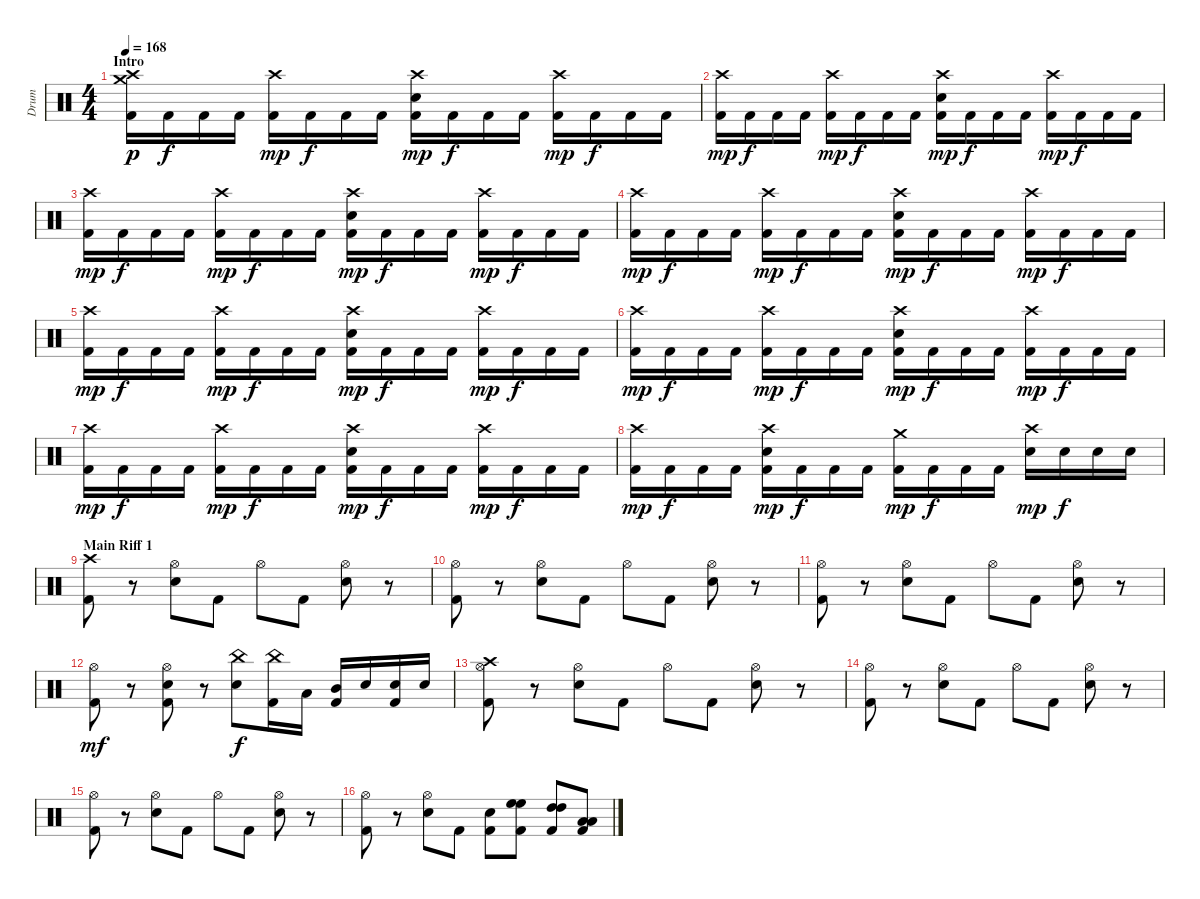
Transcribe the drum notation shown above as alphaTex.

\track ("Drum" "Drum") {instrument percussion}
\staff {score}
\articulation defaults
\ts (4 4)
\section ("" "Intro")
\tempo 168
\clef neutral
\ks c
("Crash medium (hit)" "Crash high (hit)" "Kick (hit) 2").16{dy p} "Kick (hit) 2".16{dy f} "Kick (hit) 2".16 "Kick (hit) 2".16 ("Crash high (hit)" "Kick (hit) 2").16{dy mp} "Kick (hit) 2".16{dy f} "Kick (hit) 2".16 "Kick (hit) 2".16 ("Crash high (hit)" "Electric Snare (hit)" "Kick (hit) 2").16{dy mp} "Kick (hit) 2".16{dy f} "Kick (hit) 2".16 "Kick (hit) 2".16 ("Crash high (hit)" "Kick (hit) 2").16{dy mp} "Kick (hit) 2".16{dy f} "Kick (hit) 2".16 "Kick (hit) 2".16 |
("Crash high (hit)" "Kick (hit) 2").16{dy mp} "Kick (hit) 2".16{dy f} "Kick (hit) 2".16 "Kick (hit) 2".16 ("Crash high (hit)" "Kick (hit) 2").16{dy mp} "Kick (hit) 2".16{dy f} "Kick (hit) 2".16 "Kick (hit) 2".16 ("Crash high (hit)" "Electric Snare (hit)" "Kick (hit) 2").16{dy mp} "Kick (hit) 2".16{dy f} "Kick (hit) 2".16 "Kick (hit) 2".16 ("Crash high (hit)" "Kick (hit) 2").16{dy mp} "Kick (hit) 2".16{dy f} "Kick (hit) 2".16 "Kick (hit) 2".16 |
("Crash high (hit)" "Kick (hit) 2").16{dy mp} "Kick (hit) 2".16{dy f} "Kick (hit) 2".16 "Kick (hit) 2".16 ("Crash high (hit)" "Kick (hit) 2").16{dy mp} "Kick (hit) 2".16{dy f} "Kick (hit) 2".16 "Kick (hit) 2".16 ("Crash high (hit)" "Electric Snare (hit)" "Kick (hit) 2").16{dy mp} "Kick (hit) 2".16{dy f} "Kick (hit) 2".16 "Kick (hit) 2".16 ("Crash high (hit)" "Kick (hit) 2").16{dy mp} "Kick (hit) 2".16{dy f} "Kick (hit) 2".16 "Kick (hit) 2".16 |
("Crash high (hit)" "Kick (hit) 2").16{dy mp} "Kick (hit) 2".16{dy f} "Kick (hit) 2".16 "Kick (hit) 2".16 ("Crash high (hit)" "Kick (hit) 2").16{dy mp} "Kick (hit) 2".16{dy f} "Kick (hit) 2".16 "Kick (hit) 2".16 ("Crash high (hit)" "Electric Snare (hit)" "Kick (hit) 2").16{dy mp} "Kick (hit) 2".16{dy f} "Kick (hit) 2".16 "Kick (hit) 2".16 ("Crash high (hit)" "Kick (hit) 2").16{dy mp} "Kick (hit) 2".16{dy f} "Kick (hit) 2".16 "Kick (hit) 2".16 |
("Crash high (hit)" "Kick (hit) 2").16{dy mp} "Kick (hit) 2".16{dy f} "Kick (hit) 2".16 "Kick (hit) 2".16 ("Crash high (hit)" "Kick (hit) 2").16{dy mp} "Kick (hit) 2".16{dy f} "Kick (hit) 2".16 "Kick (hit) 2".16 ("Crash high (hit)" "Electric Snare (hit)" "Kick (hit) 2").16{dy mp} "Kick (hit) 2".16{dy f} "Kick (hit) 2".16 "Kick (hit) 2".16 ("Crash high (hit)" "Kick (hit) 2").16{dy mp} "Kick (hit) 2".16{dy f} "Kick (hit) 2".16 "Kick (hit) 2".16 |
("Crash high (hit)" "Kick (hit) 2").16{dy mp} "Kick (hit) 2".16{dy f} "Kick (hit) 2".16 "Kick (hit) 2".16 ("Crash high (hit)" "Kick (hit) 2").16{dy mp} "Kick (hit) 2".16{dy f} "Kick (hit) 2".16 "Kick (hit) 2".16 ("Crash high (hit)" "Electric Snare (hit)" "Kick (hit) 2").16{dy mp} "Kick (hit) 2".16{dy f} "Kick (hit) 2".16 "Kick (hit) 2".16 ("Crash high (hit)" "Kick (hit) 2").16{dy mp} "Kick (hit) 2".16{dy f} "Kick (hit) 2".16 "Kick (hit) 2".16 |
("Crash high (hit)" "Kick (hit) 2").16{dy mp} "Kick (hit) 2".16{dy f} "Kick (hit) 2".16 "Kick (hit) 2".16 ("Crash high (hit)" "Kick (hit) 2").16{dy mp} "Kick (hit) 2".16{dy f} "Kick (hit) 2".16 "Kick (hit) 2".16 ("Crash high (hit)" "Electric Snare (hit)" "Kick (hit) 2").16{dy mp} "Kick (hit) 2".16{dy f} "Kick (hit) 2".16 "Kick (hit) 2".16 ("Crash high (hit)" "Kick (hit) 2").16{dy mp} "Kick (hit) 2".16{dy f} "Kick (hit) 2".16 "Kick (hit) 2".16 |
("Crash high (hit)" "Kick (hit) 2").16{dy mp} "Kick (hit) 2".16{dy f} "Kick (hit) 2".16 "Kick (hit) 2".16 ("Crash high (hit)" "Electric Snare (hit)" "Kick (hit) 2").16{dy mp} "Kick (hit) 2".16{dy f} "Kick (hit) 2".16 "Kick (hit) 2".16 ("Crash medium (hit)" "Kick (hit) 2").16{dy mp} "Kick (hit) 2".16{dy f} "Kick (hit) 2".16 "Kick (hit) 2".16 ("Crash high (hit)" "Electric Snare (hit)").16{dy mp} "Electric Snare (hit)".16{dy f} "Electric Snare (hit)".16 "Electric Snare (hit)".16 |
\section ("" "Main Riff 1")
("Crash high (hit)" "Kick (hit) 2").8 r.8 ("Hi-Hat (open)" "Electric Snare (hit)").8 "Kick (hit) 2".8 "Hi-Hat (open)".8 "Kick (hit) 2".8 ("Hi-Hat (open)" "Electric Snare (hit)").8 r.8 |
("Hi-Hat (open)" "Kick (hit) 2").8 r.8 ("Hi-Hat (open)" "Electric Snare (hit)").8 "Kick (hit) 2".8 "Hi-Hat (open)".8 "Kick (hit) 2".8 ("Hi-Hat (open)" "Electric Snare (hit)").8 r.8 |
("Hi-Hat (open)" "Kick (hit) 2").8 r.8 ("Hi-Hat (open)" "Electric Snare (hit)").8 "Kick (hit) 2".8 "Hi-Hat (open)".8 "Kick (hit) 2".8 ("Hi-Hat (open)" "Electric Snare (hit)").8 r.8 |
("Kick (hit) 2" "Hi-Hat (open)").8{dy mf} r.8 ("Kick (hit) 2" "Electric Snare (hit)" "Hi-Hat (open)").8 r.8 ("Electric Snare (hit)" "China (hit)").8{dy f} ("Kick (hit) 2" "China (hit)").16 "Low Tom (hit)".16 ("Kick (hit) 2" "Mid Tom (hit)").16 "Electric Snare (hit)".16 ("Kick (hit) 2" "Electric Snare (hit)").16 "Electric Snare (hit)".16 |
("Crash high (hit)" "Hi-Hat (open)" "Kick (hit) 2").8 r.8 ("Hi-Hat (open)" "Electric Snare (hit)").8 "Kick (hit) 2".8 "Hi-Hat (open)".8 "Kick (hit) 2".8 ("Hi-Hat (open)" "Electric Snare (hit)").8 r.8 |
("Hi-Hat (open)" "Kick (hit) 2").8 r.8 ("Hi-Hat (open)" "Electric Snare (hit)").8 "Kick (hit) 2".8 "Hi-Hat (open)".8 "Kick (hit) 2".8 ("Hi-Hat (open)" "Electric Snare (hit)").8 r.8 |
("Hi-Hat (open)" "Kick (hit) 2").8 r.8 ("Hi-Hat (open)" "Electric Snare (hit)").8 "Kick (hit) 2".8 "Hi-Hat (open)".8 "Kick (hit) 2".8 ("Hi-Hat (open)" "Electric Snare (hit)").8 r.8 |
("Hi-Hat (open)" "Kick (hit) 2").8 r.8 ("Hi-Hat (open)" "Electric Snare (hit)").8 "Kick (hit) 2".8 ("Electric Snare (hit)" "Kick (hit) 2").8 ("High Floor Tom (hit)" "High Floor Tom (hit)" "Kick (hit) 2").8 ("High Tom (hit)" "High Tom (hit)" "Kick (hit) 2").8 ("Low Tom (hit)" "Low Tom (hit)" "Kick (hit) 2").8
